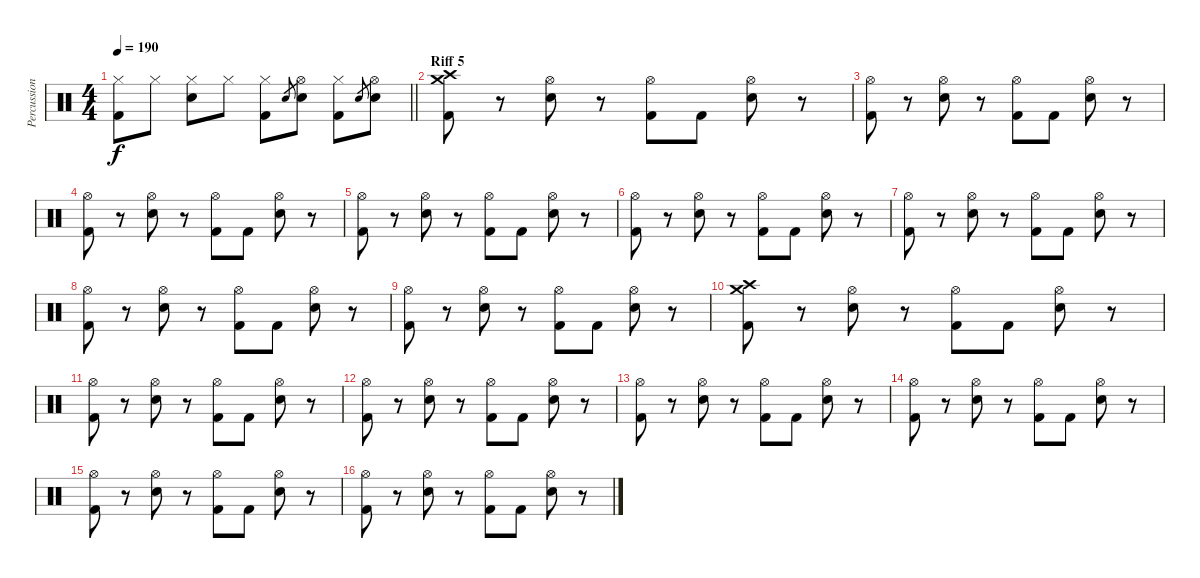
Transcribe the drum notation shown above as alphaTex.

\track ("Percussion" "Percussion") {instrument percussion}
\staff {score}
\articulation defaults
\ts (4 4)
\tempo 190
\clef neutral
\barLineRight lightlight
\ks c
("Hi-Hat (closed)" "Kick (hit) 2").8{dy f} "Hi-Hat (closed)".8 ("Hi-Hat (closed)" "Electric Snare (hit)").8 "Hi-Hat (closed)".8 ("Hi-Hat (closed)" "Kick (hit) 2").8 "Electric Snare (hit)".8{gr} ("Hi-Hat (open)" "Electric Snare (hit)").8 ("Hi-Hat (closed)" "Kick (hit) 2").8 "Electric Snare (hit)".8{gr} ("Hi-Hat (open)" "Electric Snare (hit)").8 |
\section ("" "Riff 5")
("Crash medium (hit)" "Crash high (hit)" "Kick (hit) 2").8 r.8 ("Hi-Hat (open)" "Electric Snare (hit)").8 r.8 ("Hi-Hat (open)" "Kick (hit) 2").8 "Kick (hit) 2".8 ("Hi-Hat (open)" "Electric Snare (hit)").8 r.8 |
("Hi-Hat (open)" "Kick (hit) 2").8 r.8 ("Hi-Hat (open)" "Electric Snare (hit)").8 r.8 ("Hi-Hat (open)" "Kick (hit) 2").8 "Kick (hit) 2".8 ("Hi-Hat (open)" "Electric Snare (hit)").8 r.8 |
("Hi-Hat (open)" "Kick (hit) 2").8 r.8 ("Hi-Hat (open)" "Electric Snare (hit)").8 r.8 ("Hi-Hat (open)" "Kick (hit) 2").8 "Kick (hit) 2".8 ("Hi-Hat (open)" "Electric Snare (hit)").8 r.8 |
("Hi-Hat (open)" "Kick (hit) 2").8 r.8 ("Hi-Hat (open)" "Electric Snare (hit)").8 r.8 ("Hi-Hat (open)" "Kick (hit) 2").8 "Kick (hit) 2".8 ("Hi-Hat (open)" "Electric Snare (hit)").8 r.8 |
("Hi-Hat (open)" "Kick (hit) 2").8 r.8 ("Hi-Hat (open)" "Electric Snare (hit)").8 r.8 ("Hi-Hat (open)" "Kick (hit) 2").8 "Kick (hit) 2".8 ("Hi-Hat (open)" "Electric Snare (hit)").8 r.8 |
("Hi-Hat (open)" "Kick (hit) 2").8 r.8 ("Hi-Hat (open)" "Electric Snare (hit)").8 r.8 ("Hi-Hat (open)" "Kick (hit) 2").8 "Kick (hit) 2".8 ("Hi-Hat (open)" "Electric Snare (hit)").8 r.8 |
("Hi-Hat (open)" "Kick (hit) 2").8 r.8 ("Hi-Hat (open)" "Electric Snare (hit)").8 r.8 ("Hi-Hat (open)" "Kick (hit) 2").8 "Kick (hit) 2".8 ("Hi-Hat (open)" "Electric Snare (hit)").8 r.8 |
("Hi-Hat (open)" "Kick (hit) 2").8 r.8 ("Hi-Hat (open)" "Electric Snare (hit)").8 r.8 ("Hi-Hat (open)" "Kick (hit) 2").8 "Kick (hit) 2".8 ("Hi-Hat (open)" "Electric Snare (hit)").8 r.8 |
("Crash medium (hit)" "Crash high (hit)" "Kick (hit) 2").8 r.8 ("Hi-Hat (open)" "Electric Snare (hit)").8 r.8 ("Hi-Hat (open)" "Kick (hit) 2").8 "Kick (hit) 2".8 ("Hi-Hat (open)" "Electric Snare (hit)").8 r.8 |
("Hi-Hat (open)" "Kick (hit) 2").8 r.8 ("Hi-Hat (open)" "Electric Snare (hit)").8 r.8 ("Hi-Hat (open)" "Kick (hit) 2").8 "Kick (hit) 2".8 ("Hi-Hat (open)" "Electric Snare (hit)").8 r.8 |
("Hi-Hat (open)" "Kick (hit) 2").8 r.8 ("Hi-Hat (open)" "Electric Snare (hit)").8 r.8 ("Hi-Hat (open)" "Kick (hit) 2").8 "Kick (hit) 2".8 ("Hi-Hat (open)" "Electric Snare (hit)").8 r.8 |
("Hi-Hat (open)" "Kick (hit) 2").8 r.8 ("Hi-Hat (open)" "Electric Snare (hit)").8 r.8 ("Hi-Hat (open)" "Kick (hit) 2").8 "Kick (hit) 2".8 ("Hi-Hat (open)" "Electric Snare (hit)").8 r.8 |
("Hi-Hat (open)" "Kick (hit) 2").8 r.8 ("Hi-Hat (open)" "Electric Snare (hit)").8 r.8 ("Hi-Hat (open)" "Kick (hit) 2").8 "Kick (hit) 2".8 ("Hi-Hat (open)" "Electric Snare (hit)").8 r.8 |
("Hi-Hat (open)" "Kick (hit) 2").8 r.8 ("Hi-Hat (open)" "Electric Snare (hit)").8 r.8 ("Hi-Hat (open)" "Kick (hit) 2").8 "Kick (hit) 2".8 ("Hi-Hat (open)" "Electric Snare (hit)").8 r.8 |
("Hi-Hat (open)" "Kick (hit) 2").8 r.8 ("Hi-Hat (open)" "Electric Snare (hit)").8 r.8 ("Hi-Hat (open)" "Kick (hit) 2").8 "Kick (hit) 2".8 ("Hi-Hat (open)" "Electric Snare (hit)").8 r.8
